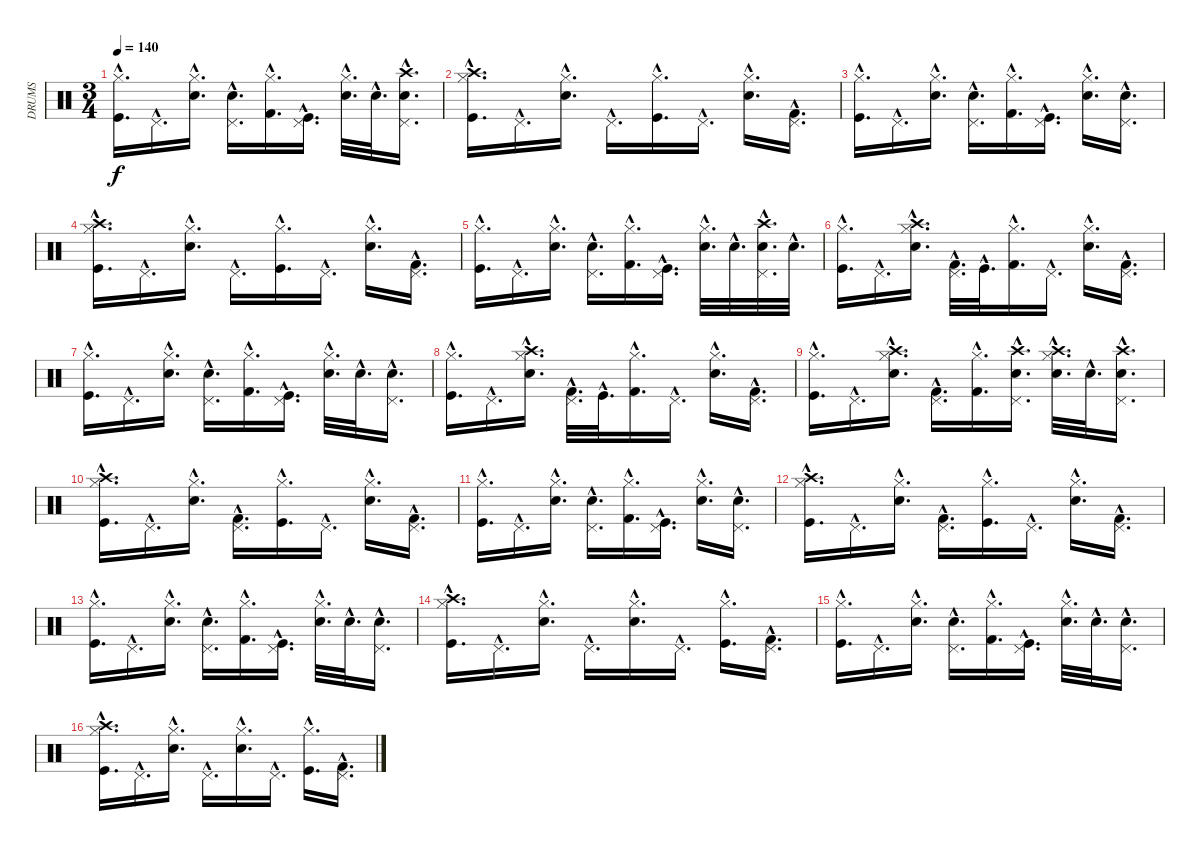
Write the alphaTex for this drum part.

\track ("DRUMS" "DRUMS") {instrument percussion}
\staff {score}
\articulation defaults
\ts (3 4)
\tempo 140
\clef neutral
\ks c
("Hi-Hat (closed)"{hac} "Kick (hit)"{hac}).16{d dy f} "Pedal Hi-Hat (hit)"{hac}.16{d} ("Hi-Hat (closed)"{hac} "Electric Snare (hit)"{hac}).16{d} ("Pedal Hi-Hat (hit)"{hac} "Electric Snare (hit)"{hac}).16{d} ("Hi-Hat (closed)"{hac} "Kick (hit) 2"{hac}).16{d} ("Pedal Hi-Hat (hit)"{hac} "Kick (hit)"{hac}).16{d} ("Hi-Hat (closed)"{hac} "Electric Snare (hit)"{hac}).32{d} "Electric Snare (hit)"{hac}.32{d} ("Pedal Hi-Hat (hit)"{hac} "Crash high (hit)"{hac} "Electric Snare (hit)"{hac}).16{d} |
("Hi-Hat (closed)"{hac} "Crash high (hit)"{hac} "Kick (hit)"{hac}).16{d} "Pedal Hi-Hat (hit)"{hac}.16{d} ("Hi-Hat (closed)"{hac} "Electric Snare (hit)"{hac}).16{d} "Pedal Hi-Hat (hit)"{hac}.16{d} ("Hi-Hat (closed)"{hac} "Kick (hit)"{hac}).16{d} "Pedal Hi-Hat (hit)"{hac}.16{d} ("Hi-Hat (closed)"{hac} "Electric Snare (hit)"{hac}).16{d} ("Pedal Hi-Hat (hit)"{hac} "Kick (hit) 2"{hac}).16{d} |
("Hi-Hat (closed)"{hac} "Kick (hit)"{hac}).16{d} "Pedal Hi-Hat (hit)"{hac}.16{d} ("Hi-Hat (closed)"{hac} "Electric Snare (hit)"{hac}).16{d} ("Pedal Hi-Hat (hit)"{hac} "Electric Snare (hit)"{hac}).16{d} ("Hi-Hat (closed)"{hac} "Kick (hit) 2"{hac}).16{d} ("Pedal Hi-Hat (hit)"{hac} "Kick (hit)"{hac}).16{d} ("Hi-Hat (closed)"{hac} "Electric Snare (hit)"{hac}).16{d} ("Pedal Hi-Hat (hit)"{hac} "Electric Snare (hit)"{hac}).16{d} |
("Hi-Hat (closed)"{hac} "Crash high (hit)"{hac} "Kick (hit)"{hac}).16{d} "Pedal Hi-Hat (hit)"{hac}.16{d} ("Hi-Hat (closed)"{hac} "Electric Snare (hit)"{hac}).16{d} "Pedal Hi-Hat (hit)"{hac}.16{d} ("Hi-Hat (closed)"{hac} "Kick (hit)"{hac}).16{d} "Pedal Hi-Hat (hit)"{hac}.16{d} ("Hi-Hat (closed)"{hac} "Electric Snare (hit)"{hac}).16{d} ("Pedal Hi-Hat (hit)"{hac} "Kick (hit) 2"{hac}).16{d} |
("Hi-Hat (closed)"{hac} "Kick (hit)"{hac}).16{d} "Pedal Hi-Hat (hit)"{hac}.16{d} ("Hi-Hat (closed)"{hac} "Electric Snare (hit)"{hac}).16{d} ("Pedal Hi-Hat (hit)"{hac} "Electric Snare (hit)"{hac}).16{d} ("Hi-Hat (closed)"{hac} "Kick (hit) 2"{hac}).16{d} ("Pedal Hi-Hat (hit)"{hac} "Kick (hit)"{hac}).16{d} ("Hi-Hat (closed)"{hac} "Electric Snare (hit)"{hac}).32{d} "Electric Snare (hit)"{hac}.32{d} ("Pedal Hi-Hat (hit)"{hac} "Crash high (hit)"{hac} "Electric Snare (hit)"{hac}).32{d} "Electric Snare (hit)"{hac}.32{d} |
("Hi-Hat (closed)"{hac} "Kick (hit)"{hac}).16{d} "Pedal Hi-Hat (hit)"{hac}.16{d} ("Hi-Hat (closed)"{hac} "Crash high (hit)"{hac} "Electric Snare (hit)"{hac}).16{d} ("Pedal Hi-Hat (hit)"{hac} "Kick (hit) 2"{hac}).32{d} "Kick (hit)"{hac}.32{d} ("Hi-Hat (closed)"{hac} "Kick (hit) 2"{hac}).16{d} "Pedal Hi-Hat (hit)"{hac}.16{d} ("Hi-Hat (closed)"{hac} "Electric Snare (hit)"{hac}).16{d} ("Pedal Hi-Hat (hit)"{hac} "Kick (hit) 2"{hac}).16{d} |
("Hi-Hat (closed)"{hac} "Kick (hit)"{hac}).16{d} "Pedal Hi-Hat (hit)"{hac}.16{d} ("Hi-Hat (closed)"{hac} "Electric Snare (hit)"{hac}).16{d} ("Pedal Hi-Hat (hit)"{hac} "Electric Snare (hit)"{hac}).16{d} ("Hi-Hat (closed)"{hac} "Kick (hit) 2"{hac}).16{d} ("Pedal Hi-Hat (hit)"{hac} "Kick (hit)"{hac}).16{d} ("Hi-Hat (closed)"{hac} "Electric Snare (hit)"{hac}).32{d} "Electric Snare (hit)"{hac}.32{d} ("Pedal Hi-Hat (hit)"{hac} "Electric Snare (hit)"{hac}).16{d} |
("Hi-Hat (closed)"{hac} "Kick (hit)"{hac}).16{d} "Pedal Hi-Hat (hit)"{hac}.16{d} ("Hi-Hat (closed)"{hac} "Crash high (hit)"{hac} "Electric Snare (hit)"{hac}).16{d} ("Pedal Hi-Hat (hit)"{hac} "Kick (hit) 2"{hac}).32{d} "Kick (hit)"{hac}.32{d} ("Hi-Hat (closed)"{hac} "Kick (hit) 2"{hac}).16{d} "Pedal Hi-Hat (hit)"{hac}.16{d} ("Hi-Hat (closed)"{hac} "Electric Snare (hit)"{hac}).16{d} ("Pedal Hi-Hat (hit)"{hac} "Kick (hit) 2"{hac}).16{d} |
("Hi-Hat (closed)"{hac} "Kick (hit)"{hac}).16{d} "Pedal Hi-Hat (hit)"{hac}.16{d} ("Hi-Hat (closed)"{hac} "Crash high (hit)"{hac} "Electric Snare (hit)"{hac}).16{d} ("Pedal Hi-Hat (hit)"{hac} "Kick (hit) 2"{hac}).16{d} ("Hi-Hat (closed)"{hac} "Kick (hit) 2"{hac}).16{d} ("Pedal Hi-Hat (hit)"{hac} "Crash high (hit)"{hac} "Electric Snare (hit)"{hac}).16{d} ("Hi-Hat (closed)"{hac} "Crash high (hit)"{hac} "Electric Snare (hit)"{hac}).32{d} "Electric Snare (hit)"{hac}.32{d} ("Pedal Hi-Hat (hit)"{hac} "Crash high (hit)"{hac} "Electric Snare (hit)"{hac}).16{d} |
("Hi-Hat (closed)"{hac} "Crash high (hit)"{hac} "Kick (hit)"{hac}).16{d} "Pedal Hi-Hat (hit)"{hac}.16{d} ("Hi-Hat (closed)"{hac} "Electric Snare (hit)"{hac}).16{d} ("Pedal Hi-Hat (hit)"{hac} "Kick (hit) 2"{hac}).16{d} ("Hi-Hat (closed)"{hac} "Kick (hit)"{hac}).16{d} "Pedal Hi-Hat (hit)"{hac}.16{d} ("Hi-Hat (closed)"{hac} "Electric Snare (hit)"{hac}).16{d} ("Pedal Hi-Hat (hit)"{hac} "Kick (hit) 2"{hac}).16{d} |
("Hi-Hat (closed)"{hac} "Kick (hit)"{hac}).16{d} "Pedal Hi-Hat (hit)"{hac}.16{d} ("Hi-Hat (closed)"{hac} "Electric Snare (hit)"{hac}).16{d} ("Pedal Hi-Hat (hit)"{hac} "Electric Snare (hit)"{hac}).16{d} ("Hi-Hat (closed)"{hac} "Kick (hit) 2"{hac}).16{d} ("Pedal Hi-Hat (hit)"{hac} "Kick (hit)"{hac}).16{d} ("Hi-Hat (closed)"{hac} "Electric Snare (hit)"{hac}).16{d} ("Pedal Hi-Hat (hit)"{hac} "Electric Snare (hit)"{hac}).16{d} |
("Hi-Hat (closed)"{hac} "Crash high (hit)"{hac} "Kick (hit)"{hac}).16{d} "Pedal Hi-Hat (hit)"{hac}.16{d} ("Hi-Hat (closed)"{hac} "Electric Snare (hit)"{hac}).16{d} ("Pedal Hi-Hat (hit)"{hac} "Kick (hit) 2"{hac}).16{d} ("Hi-Hat (closed)"{hac} "Kick (hit)"{hac}).16{d} "Pedal Hi-Hat (hit)"{hac}.16{d} ("Hi-Hat (closed)"{hac} "Electric Snare (hit)"{hac}).16{d} ("Pedal Hi-Hat (hit)"{hac} "Kick (hit) 2"{hac}).16{d} |
("Hi-Hat (closed)"{hac} "Kick (hit)"{hac}).16{d} "Pedal Hi-Hat (hit)"{hac}.16{d} ("Hi-Hat (closed)"{hac} "Electric Snare (hit)"{hac}).16{d} ("Pedal Hi-Hat (hit)"{hac} "Electric Snare (hit)"{hac}).16{d} ("Hi-Hat (closed)"{hac} "Kick (hit) 2"{hac}).16{d} ("Pedal Hi-Hat (hit)"{hac} "Kick (hit)"{hac}).16{d} ("Hi-Hat (closed)"{hac} "Electric Snare (hit)"{hac}).32{d} "Electric Snare (hit)"{hac}.32{d} ("Pedal Hi-Hat (hit)"{hac} "Electric Snare (hit)"{hac}).16{d} |
("Hi-Hat (closed)"{hac} "Crash high (hit)"{hac} "Kick (hit)"{hac}).16{d} "Pedal Hi-Hat (hit)"{hac}.16{d} ("Hi-Hat (closed)"{hac} "Electric Snare (hit)"{hac}).16{d} "Pedal Hi-Hat (hit)"{hac}.16{d} ("Hi-Hat (closed)"{hac} "Electric Snare (hit)"{hac}).16{d} "Pedal Hi-Hat (hit)"{hac}.16{d} ("Hi-Hat (closed)"{hac} "Kick (hit)"{hac}).16{d} ("Pedal Hi-Hat (hit)"{hac} "Kick (hit) 2"{hac}).16{d} |
("Hi-Hat (closed)"{hac} "Kick (hit)"{hac}).16{d} "Pedal Hi-Hat (hit)"{hac}.16{d} ("Hi-Hat (closed)"{hac} "Electric Snare (hit)"{hac}).16{d} ("Pedal Hi-Hat (hit)"{hac} "Electric Snare (hit)"{hac}).16{d} ("Hi-Hat (closed)"{hac} "Kick (hit) 2"{hac}).16{d} ("Pedal Hi-Hat (hit)"{hac} "Kick (hit)"{hac}).16{d} ("Hi-Hat (closed)"{hac} "Electric Snare (hit)"{hac}).32{d} "Electric Snare (hit)"{hac}.32{d} ("Pedal Hi-Hat (hit)"{hac} "Electric Snare (hit)"{hac}).16{d} |
("Hi-Hat (closed)"{hac} "Crash high (hit)"{hac} "Kick (hit)"{hac}).16{d} "Pedal Hi-Hat (hit)"{hac}.16{d} ("Hi-Hat (closed)"{hac} "Electric Snare (hit)"{hac}).16{d} "Pedal Hi-Hat (hit)"{hac}.16{d} ("Hi-Hat (closed)"{hac} "Electric Snare (hit)"{hac}).16{d} "Pedal Hi-Hat (hit)"{hac}.16{d} ("Hi-Hat (closed)"{hac} "Kick (hit)"{hac}).16{d} ("Pedal Hi-Hat (hit)"{hac} "Kick (hit) 2"{hac}).16{d}
